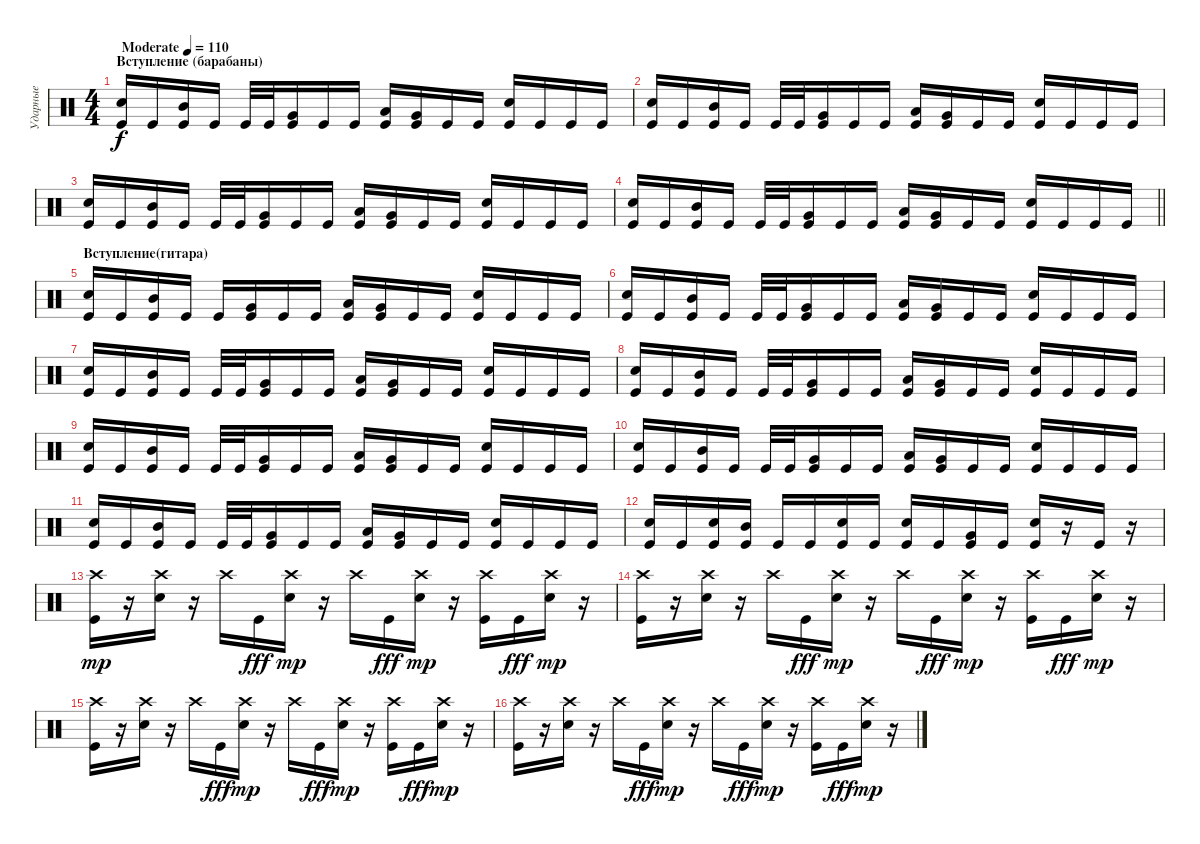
\track ("Ударные" "Ударные") {instrument percussion}
\staff {score}
\articulation defaults
\ts (4 4)
\section ("" "Вступление (барабаны)")
\tempo (110 "Moderate")
\clef neutral
\ks c
("Electric Snare (hit)" "Kick (hit)").16{dy f} "Kick (hit)".16 ("Mid Tom (hit)" "Kick (hit)").16 "Kick (hit)".16 "Kick (hit)".32 "Kick (hit)".32 ("Very Low Tom (hit)" "Kick (hit)").16 "Kick (hit)".16 "Kick (hit)".16 ("Low Tom (hit)" "Kick (hit)").16 ("Very Low Tom (hit)" "Kick (hit)").16 "Kick (hit)".16 "Kick (hit)".16 ("Electric Snare (hit)" "Kick (hit)").16 "Kick (hit)".16 "Kick (hit)".16 "Kick (hit)".16 |
("Electric Snare (hit)" "Kick (hit)").16 "Kick (hit)".16 ("Mid Tom (hit)" "Kick (hit)").16 "Kick (hit)".16 "Kick (hit)".32 "Kick (hit)".32 ("Very Low Tom (hit)" "Kick (hit)").16 "Kick (hit)".16 "Kick (hit)".16 ("Low Tom (hit)" "Kick (hit)").16 ("Very Low Tom (hit)" "Kick (hit)").16 "Kick (hit)".16 "Kick (hit)".16 ("Electric Snare (hit)" "Kick (hit)").16 "Kick (hit)".16 "Kick (hit)".16 "Kick (hit)".16 |
("Electric Snare (hit)" "Kick (hit)").16 "Kick (hit)".16 ("Mid Tom (hit)" "Kick (hit)").16 "Kick (hit)".16 "Kick (hit)".32 "Kick (hit)".32 ("Very Low Tom (hit)" "Kick (hit)").16 "Kick (hit)".16 "Kick (hit)".16 ("Low Tom (hit)" "Kick (hit)").16 ("Very Low Tom (hit)" "Kick (hit)").16 "Kick (hit)".16 "Kick (hit)".16 ("Electric Snare (hit)" "Kick (hit)").16 "Kick (hit)".16 "Kick (hit)".16 "Kick (hit)".16 |
\barLineRight lightlight
("Electric Snare (hit)" "Kick (hit)").16 "Kick (hit)".16 ("Mid Tom (hit)" "Kick (hit)").16 "Kick (hit)".16 "Kick (hit)".32 "Kick (hit)".32 ("Very Low Tom (hit)" "Kick (hit)").16 "Kick (hit)".16 "Kick (hit)".16 ("Low Tom (hit)" "Kick (hit)").16 ("Very Low Tom (hit)" "Kick (hit)").16 "Kick (hit)".16 "Kick (hit)".16 ("Electric Snare (hit)" "Kick (hit)").16 "Kick (hit)".16 "Kick (hit)".16 "Kick (hit)".16 |
\section ("" "Вступление(гитара)")
("Electric Snare (hit)" "Kick (hit)").16 "Kick (hit)".16 ("Mid Tom (hit)" "Kick (hit)").16 "Kick (hit)".16 "Kick (hit)".16 ("Very Low Tom (hit)" "Kick (hit)").16 "Kick (hit)".16 "Kick (hit)".16 ("Low Tom (hit)" "Kick (hit)").16 ("Very Low Tom (hit)" "Kick (hit)").16 "Kick (hit)".16 "Kick (hit)".16 ("Electric Snare (hit)" "Kick (hit)").16 "Kick (hit)".16 "Kick (hit)".16 "Kick (hit)".16 |
("Electric Snare (hit)" "Kick (hit)").16 "Kick (hit)".16 ("Mid Tom (hit)" "Kick (hit)").16 "Kick (hit)".16 "Kick (hit)".32 "Kick (hit)".32 ("Very Low Tom (hit)" "Kick (hit)").16 "Kick (hit)".16 "Kick (hit)".16 ("Low Tom (hit)" "Kick (hit)").16 ("Very Low Tom (hit)" "Kick (hit)").16 "Kick (hit)".16 "Kick (hit)".16 ("Electric Snare (hit)" "Kick (hit)").16 "Kick (hit)".16 "Kick (hit)".16 "Kick (hit)".16 |
("Electric Snare (hit)" "Kick (hit)").16 "Kick (hit)".16 ("Mid Tom (hit)" "Kick (hit)").16 "Kick (hit)".16 "Kick (hit)".32 "Kick (hit)".32 ("Very Low Tom (hit)" "Kick (hit)").16 "Kick (hit)".16 "Kick (hit)".16 ("Low Tom (hit)" "Kick (hit)").16 ("Very Low Tom (hit)" "Kick (hit)").16 "Kick (hit)".16 "Kick (hit)".16 ("Electric Snare (hit)" "Kick (hit)").16 "Kick (hit)".16 "Kick (hit)".16 "Kick (hit)".16 |
("Electric Snare (hit)" "Kick (hit)").16 "Kick (hit)".16 ("Mid Tom (hit)" "Kick (hit)").16 "Kick (hit)".16 "Kick (hit)".32 "Kick (hit)".32 ("Very Low Tom (hit)" "Kick (hit)").16 "Kick (hit)".16 "Kick (hit)".16 ("Low Tom (hit)" "Kick (hit)").16 ("Very Low Tom (hit)" "Kick (hit)").16 "Kick (hit)".16 "Kick (hit)".16 ("Electric Snare (hit)" "Kick (hit)").16 "Kick (hit)".16 "Kick (hit)".16 "Kick (hit)".16 |
("Electric Snare (hit)" "Kick (hit)").16 "Kick (hit)".16 ("Mid Tom (hit)" "Kick (hit)").16 "Kick (hit)".16 "Kick (hit)".32 "Kick (hit)".32 ("Very Low Tom (hit)" "Kick (hit)").16 "Kick (hit)".16 "Kick (hit)".16 ("Low Tom (hit)" "Kick (hit)").16 ("Very Low Tom (hit)" "Kick (hit)").16 "Kick (hit)".16 "Kick (hit)".16 ("Electric Snare (hit)" "Kick (hit)").16 "Kick (hit)".16 "Kick (hit)".16 "Kick (hit)".16 |
("Electric Snare (hit)" "Kick (hit)").16 "Kick (hit)".16 ("Mid Tom (hit)" "Kick (hit)").16 "Kick (hit)".16 "Kick (hit)".32 "Kick (hit)".32 ("Very Low Tom (hit)" "Kick (hit)").16 "Kick (hit)".16 "Kick (hit)".16 ("Low Tom (hit)" "Kick (hit)").16 ("Very Low Tom (hit)" "Kick (hit)").16 "Kick (hit)".16 "Kick (hit)".16 ("Electric Snare (hit)" "Kick (hit)").16 "Kick (hit)".16 "Kick (hit)".16 "Kick (hit)".16 |
("Electric Snare (hit)" "Kick (hit)").16 "Kick (hit)".16 ("Mid Tom (hit)" "Kick (hit)").16 "Kick (hit)".16 "Kick (hit)".32 "Kick (hit)".32 ("Very Low Tom (hit)" "Kick (hit)").16 "Kick (hit)".16 "Kick (hit)".16 ("Low Tom (hit)" "Kick (hit)").16 ("Very Low Tom (hit)" "Kick (hit)").16 "Kick (hit)".16 "Kick (hit)".16 ("Electric Snare (hit)" "Kick (hit)").16 "Kick (hit)".16 "Kick (hit)".16 "Kick (hit)".16 |
("Electric Snare (hit)" "Kick (hit)").16 "Kick (hit)".16 ("Electric Snare (hit)" "Kick (hit)").16 ("Mid Tom (hit)" "Kick (hit)").16 "Kick (hit)".16 "Kick (hit)".16 ("Electric Snare (hit)" "Kick (hit)").16 "Kick (hit)".16 ("Electric Snare (hit)" "Kick (hit)").16 "Kick (hit)".16 ("Very Low Tom (hit)" "Kick (hit)").16 "Kick (hit)".16 ("Electric Snare (hit)" "Kick (hit)").16 r.16 "Kick (hit)".16 r.16 |
("Kick (hit)" "Crash high (hit)").16{dy mp} r.16 ("Electric Snare (hit)" "Crash high (hit)").16 r.16 "Crash high (hit)".16 "Kick (hit)".16{dy fff} ("Electric Snare (hit)" "Crash high (hit)").16{dy mp} r.16 "Crash high (hit)".16 "Kick (hit)".16{dy fff} ("Electric Snare (hit)" "Crash high (hit)").16{dy mp} r.16 ("Kick (hit)" "Crash high (hit)").16 "Kick (hit)".16{dy fff} ("Electric Snare (hit)" "Crash high (hit)").16{dy mp} r.16 |
("Kick (hit)" "Crash high (hit)").16 r.16 ("Electric Snare (hit)" "Crash high (hit)").16 r.16 "Crash high (hit)".16 "Kick (hit)".16{dy fff} ("Electric Snare (hit)" "Crash high (hit)").16{dy mp} r.16 "Crash high (hit)".16 "Kick (hit)".16{dy fff} ("Electric Snare (hit)" "Crash high (hit)").16{dy mp} r.16 ("Kick (hit)" "Crash high (hit)").16 "Kick (hit)".16{dy fff} ("Electric Snare (hit)" "Crash high (hit)").16{dy mp} r.16 |
("Kick (hit)" "Crash high (hit)").16 r.16 ("Electric Snare (hit)" "Crash high (hit)").16 r.16 "Crash high (hit)".16 "Kick (hit)".16{dy fff} ("Electric Snare (hit)" "Crash high (hit)").16{dy mp} r.16 "Crash high (hit)".16 "Kick (hit)".16{dy fff} ("Electric Snare (hit)" "Crash high (hit)").16{dy mp} r.16 ("Kick (hit)" "Crash high (hit)").16 "Kick (hit)".16{dy fff} ("Electric Snare (hit)" "Crash high (hit)").16{dy mp} r.16 |
("Kick (hit)" "Crash high (hit)").16 r.16 ("Electric Snare (hit)" "Crash high (hit)").16 r.16 "Crash high (hit)".16 "Kick (hit)".16{dy fff} ("Electric Snare (hit)" "Crash high (hit)").16{dy mp} r.16 "Crash high (hit)".16 "Kick (hit)".16{dy fff} ("Electric Snare (hit)" "Crash high (hit)").16{dy mp} r.16 ("Kick (hit)" "Crash high (hit)").16 "Kick (hit)".16{dy fff} ("Electric Snare (hit)" "Crash high (hit)").16{dy mp} r.16
